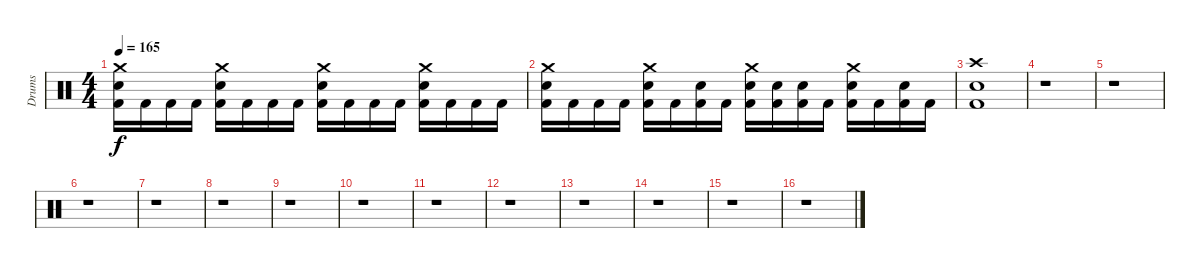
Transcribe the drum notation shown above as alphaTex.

\track ("Drums" "Drums") {instrument percussion}
\staff {score}
\articulation defaults
\ts (4 4)
\tempo 165
\clef neutral
\ks c
("Kick (hit) 2" "Electric Snare (hit)" "Crash medium (hit)").16{dy f} "Kick (hit) 2".16 "Kick (hit) 2".16 "Kick (hit) 2".16 ("Kick (hit) 2" "Electric Snare (hit)" "Crash medium (hit)").16 "Kick (hit) 2".16 "Kick (hit) 2".16 "Kick (hit) 2".16 ("Kick (hit) 2" "Electric Snare (hit)" "Crash medium (hit)").16 "Kick (hit) 2".16 "Kick (hit) 2".16 "Kick (hit) 2".16 ("Kick (hit) 2" "Electric Snare (hit)" "Crash medium (hit)").16 "Kick (hit) 2".16 "Kick (hit) 2".16 "Kick (hit) 2".16 |
("Kick (hit) 2" "Electric Snare (hit)" "Crash medium (hit)").16 "Kick (hit) 2".16 "Kick (hit) 2".16 "Kick (hit) 2".16 ("Kick (hit) 2" "Electric Snare (hit)" "Crash medium (hit)").16 "Kick (hit) 2".16 ("Kick (hit) 2" "Electric Snare (hit)").16 "Kick (hit) 2".16 ("Kick (hit) 2" "Electric Snare (hit)" "Crash medium (hit)").16 ("Kick (hit) 2" "Electric Snare (hit)").16 ("Kick (hit) 2" "Electric Snare (hit)").16 "Kick (hit) 2".16 ("Kick (hit) 2" "Electric Snare (hit)" "Crash medium (hit)").16 "Kick (hit) 2".16 ("Kick (hit) 2" "Electric Snare (hit)").16 "Kick (hit) 2".16 |
("Kick (hit) 2" "Electric Snare (hit)" "Crash high (hit)").1 |
r.1 |
r.1 |
r.1 |
r.1 |
r.1 |
r.1 |
r.1 |
r.1 |
r.1 |
r.1 |
r.1 |
r.1 |
r.1
